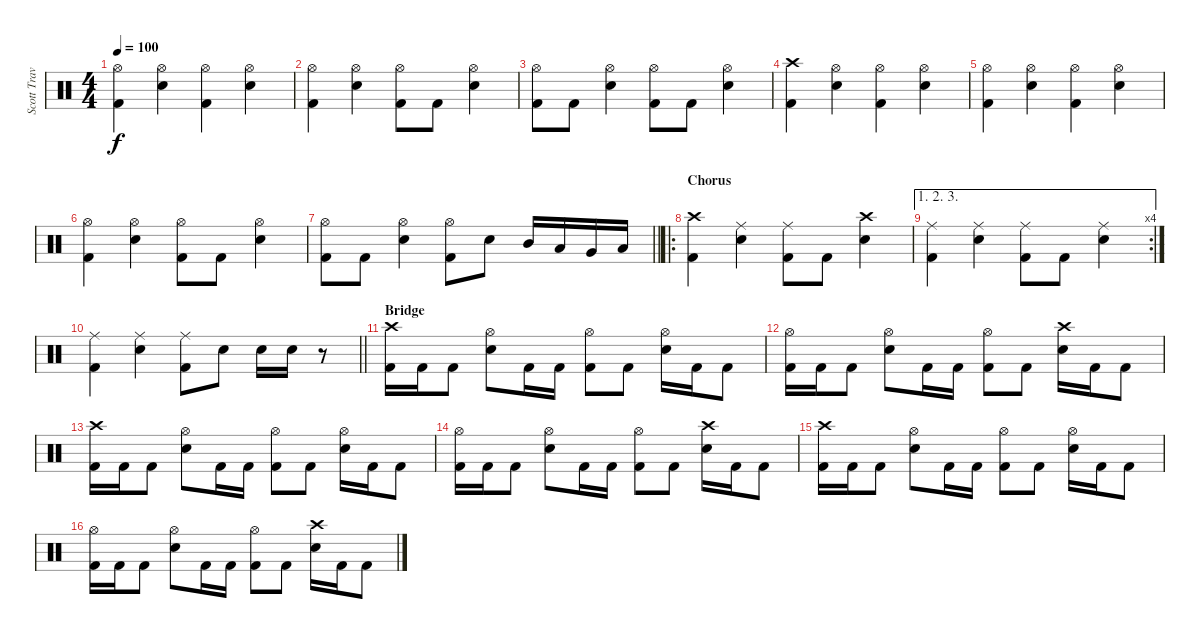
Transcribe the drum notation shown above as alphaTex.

\track ("Scott Travis" "Scott Trav") {instrument percussion}
\staff {score}
\articulation defaults
\ts (4 4)
\tempo 100
\clef neutral
\ks c
("Hi-Hat (open)" "Kick (hit) 2").4{dy f} ("Hi-Hat (open)" "Snare (hit) 2").4 ("Hi-Hat (open)" "Kick (hit) 2").4 ("Hi-Hat (open)" "Snare (hit) 2").4 |
("Hi-Hat (open)" "Kick (hit) 2").4 ("Hi-Hat (open)" "Snare (hit) 2").4 ("Hi-Hat (open)" "Kick (hit) 2").8 "Kick (hit) 2".8 ("Hi-Hat (open)" "Snare (hit) 2").4 |
("Hi-Hat (open)" "Kick (hit) 2").8 "Kick (hit) 2".8 ("Hi-Hat (open)" "Snare (hit) 2").4 ("Hi-Hat (open)" "Kick (hit) 2").8 "Kick (hit) 2".8 ("Hi-Hat (open)" "Snare (hit) 2").4 |
("Crash high (hit)" "Kick (hit) 2").4 ("Hi-Hat (open)" "Snare (hit) 2").4 ("Hi-Hat (open)" "Kick (hit) 2").4 ("Hi-Hat (open)" "Snare (hit) 2").4 |
("Hi-Hat (open)" "Kick (hit) 2").4 ("Hi-Hat (open)" "Snare (hit) 2").4 ("Hi-Hat (open)" "Kick (hit) 2").4 ("Hi-Hat (open)" "Snare (hit) 2").4 |
("Hi-Hat (open)" "Kick (hit) 2").4 ("Hi-Hat (open)" "Snare (hit) 2").4 ("Hi-Hat (open)" "Kick (hit) 2").8 "Kick (hit) 2".8 ("Hi-Hat (open)" "Snare (hit) 2").4 |
\barLineRight lightlight
("Hi-Hat (open)" "Kick (hit) 2").8 "Kick (hit) 2".8 ("Hi-Hat (open)" "Snare (hit) 2").4 ("Hi-Hat (open)" "Kick (hit) 2").8 "Snare (hit) 2".8 "Mid Tom (hit)".16 "Low Tom (hit)".16 "Very Low Tom (hit)".16 "Low Floor Tom (hit)".16 |
\ro
\section ("" "Chorus")
("Crash high (hit)" "Kick (hit) 2").4 ("Ride (middle)" "Snare (hit) 2").4 ("Ride (middle)" "Kick (hit) 2").8 "Kick (hit) 2".8 ("Crash high (hit)" "Snare (hit) 2").4 |
\ae (1 2 3)
\rc 4
("Ride (middle)" "Kick (hit) 2").4 ("Ride (middle)" "Snare (hit) 2").4 ("Ride (middle)" "Kick (hit) 2").8 "Kick (hit) 2".8 ("Ride (middle)" "Snare (hit) 2").4 |
\barLineRight lightlight
("Ride (middle)" "Kick (hit) 2").4 ("Ride (middle)" "Snare (hit) 2").4 ("Ride (middle)" "Kick (hit) 2").8 "Snare (hit) 2".8 "Snare (hit) 2".16 "Snare (hit) 2".16 r.8 |
\section ("" "Bridge")
("Crash high (hit)" "Kick (hit) 2").16 "Kick (hit) 2".16 "Kick (hit) 2".8 ("Hi-Hat (open)" "Snare (hit) 2").8 "Kick (hit) 2".16 "Kick (hit) 2".16 ("Hi-Hat (open)" "Kick (hit) 2").8 "Kick (hit) 2".8 ("Hi-Hat (open)" "Snare (hit) 2").16 "Kick (hit) 2".16 "Kick (hit) 2".8 |
("Hi-Hat (open)" "Kick (hit) 2").16 "Kick (hit) 2".16 "Kick (hit) 2".8 ("Hi-Hat (open)" "Snare (hit) 2").8 "Kick (hit) 2".16 "Kick (hit) 2".16 ("Hi-Hat (open)" "Kick (hit) 2").8 "Kick (hit) 2".8 ("Crash high (hit)" "Snare (hit) 2").16 "Kick (hit) 2".16 "Kick (hit) 2".8 |
("Crash high (hit)" "Kick (hit) 2").16 "Kick (hit) 2".16 "Kick (hit) 2".8 ("Hi-Hat (open)" "Snare (hit) 2").8 "Kick (hit) 2".16 "Kick (hit) 2".16 ("Hi-Hat (open)" "Kick (hit) 2").8 "Kick (hit) 2".8 ("Hi-Hat (open)" "Snare (hit) 2").16 "Kick (hit) 2".16 "Kick (hit) 2".8 |
("Hi-Hat (open)" "Kick (hit) 2").16 "Kick (hit) 2".16 "Kick (hit) 2".8 ("Hi-Hat (open)" "Snare (hit) 2").8 "Kick (hit) 2".16 "Kick (hit) 2".16 ("Hi-Hat (open)" "Kick (hit) 2").8 "Kick (hit) 2".8 ("Crash high (hit)" "Snare (hit) 2").16 "Kick (hit) 2".16 "Kick (hit) 2".8 |
("Crash high (hit)" "Kick (hit) 2").16 "Kick (hit) 2".16 "Kick (hit) 2".8 ("Hi-Hat (open)" "Snare (hit) 2").8 "Kick (hit) 2".16 "Kick (hit) 2".16 ("Hi-Hat (open)" "Kick (hit) 2").8 "Kick (hit) 2".8 ("Hi-Hat (open)" "Snare (hit) 2").16 "Kick (hit) 2".16 "Kick (hit) 2".8 |
("Hi-Hat (open)" "Kick (hit) 2").16 "Kick (hit) 2".16 "Kick (hit) 2".8 ("Hi-Hat (open)" "Snare (hit) 2").8 "Kick (hit) 2".16 "Kick (hit) 2".16 ("Hi-Hat (open)" "Kick (hit) 2").8 "Kick (hit) 2".8 ("Crash high (hit)" "Snare (hit) 2").16 "Kick (hit) 2".16 "Kick (hit) 2".8
